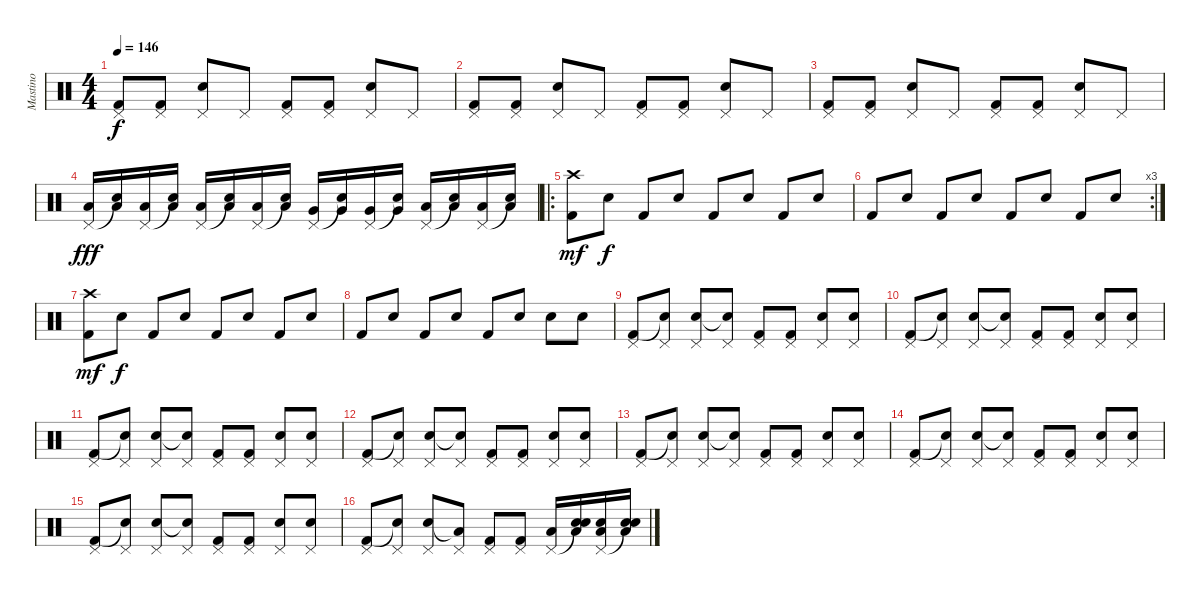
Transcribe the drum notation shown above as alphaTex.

\track ("Mastino" "Mastino") {instrument percussion}
\staff {score}
\articulation defaults
\ts (4 4)
\tempo 146
\clef neutral
\ks c
("Pedal Hi-Hat (hit)" "Kick (hit) 2").8{dy f} ("Pedal Hi-Hat (hit)" "Kick (hit) 2").8 ("Pedal Hi-Hat (hit)" "Electric Snare (hit)").8 "Pedal Hi-Hat (hit)".8 ("Pedal Hi-Hat (hit)" "Kick (hit) 2").8 ("Pedal Hi-Hat (hit)" "Kick (hit) 2").8 ("Pedal Hi-Hat (hit)" "Electric Snare (hit)").8 "Pedal Hi-Hat (hit)".8 |
("Pedal Hi-Hat (hit)" "Kick (hit) 2").8 ("Pedal Hi-Hat (hit)" "Kick (hit) 2").8 ("Pedal Hi-Hat (hit)" "Electric Snare (hit)").8 "Pedal Hi-Hat (hit)".8 ("Pedal Hi-Hat (hit)" "Kick (hit) 2").8 ("Pedal Hi-Hat (hit)" "Kick (hit) 2").8 ("Pedal Hi-Hat (hit)" "Electric Snare (hit)").8 "Pedal Hi-Hat (hit)".8 |
("Pedal Hi-Hat (hit)" "Kick (hit) 2").8 ("Pedal Hi-Hat (hit)" "Kick (hit) 2").8 ("Pedal Hi-Hat (hit)" "Electric Snare (hit)").8 "Pedal Hi-Hat (hit)".8 ("Pedal Hi-Hat (hit)" "Kick (hit) 2").8 ("Pedal Hi-Hat (hit)" "Kick (hit) 2").8 ("Pedal Hi-Hat (hit)" "Electric Snare (hit)").8 "Pedal Hi-Hat (hit)".8 |
("Pedal Hi-Hat (hit)" "Low Floor Tom (hit)").16{dy fff} ("Snare (hit)"{t} "Low Floor Tom (hit)").16 ("Pedal Hi-Hat (hit)" "Low Floor Tom (hit)").16 ("Snare (hit)"{t} "Low Floor Tom (hit)").16 ("Pedal Hi-Hat (hit)" "Low Tom (hit)").16 ("Snare (hit)"{t} "Low Tom (hit)").16 ("Pedal Hi-Hat (hit)" "Low Tom (hit)").16 ("Snare (hit)"{t} "Low Tom (hit)").16 ("Pedal Hi-Hat (hit)" "Very Low Tom (hit)").16 ("Snare (hit)"{t} "Very Low Tom (hit)").16 ("Pedal Hi-Hat (hit)" "Very Low Tom (hit)").16 ("Snare (hit)"{t} "Very Low Tom (hit)").16 ("Pedal Hi-Hat (hit)" "Low Tom (hit)").16 ("Snare (hit)"{t} "Low Tom (hit)").16 ("Pedal Hi-Hat (hit)" "Low Tom (hit)").16 ("Snare (hit)"{t} "Low Tom (hit)").16 |
\ro
("Crash high (hit)" "Kick (hit) 2").8{dy mf} "Electric Snare (hit)".8{dy f} "Kick (hit) 2".8 "Electric Snare (hit)".8 "Kick (hit) 2".8 "Electric Snare (hit)".8 "Kick (hit) 2".8 "Electric Snare (hit)".8 |
\rc 3 "Kick (hit) 2".8 "Electric Snare (hit)".8 "Kick (hit) 2".8 "Electric Snare (hit)".8 "Kick (hit) 2".8 "Electric Snare (hit)".8 "Kick (hit) 2".8 "Electric Snare (hit)".8
|
("Crash high (hit)" "Kick (hit) 2").8{dy mf} "Electric Snare (hit)".8{dy f} "Kick (hit) 2".8 "Electric Snare (hit)".8 "Kick (hit) 2".8 "Electric Snare (hit)".8 "Kick (hit) 2".8 "Electric Snare (hit)".8 |
"Kick (hit) 2".8 "Electric Snare (hit)".8 "Kick (hit) 2".8 "Electric Snare (hit)".8 "Kick (hit) 2".8 "Electric Snare (hit)".8 "Electric Snare (hit)".8 "Electric Snare (hit)".8 |
("Pedal Hi-Hat (hit)" "Kick (hit) 2").8 ("Pedal Hi-Hat (hit)" "Snare (hit)"{t}).8 ("Pedal Hi-Hat (hit)" "Electric Snare (hit)").8 ("Pedal Hi-Hat (hit)" "Snare (hit)"{t}).8 ("Pedal Hi-Hat (hit)" "Kick (hit) 2").8 ("Pedal Hi-Hat (hit)" "Kick (hit) 2").8 ("Pedal Hi-Hat (hit)" "Electric Snare (hit)").8 ("Pedal Hi-Hat (hit)" "Electric Snare (hit)").8 |
("Pedal Hi-Hat (hit)" "Kick (hit) 2").8 ("Pedal Hi-Hat (hit)" "Snare (hit)"{t}).8 ("Pedal Hi-Hat (hit)" "Electric Snare (hit)").8 ("Pedal Hi-Hat (hit)" "Snare (hit)"{t}).8 ("Pedal Hi-Hat (hit)" "Kick (hit) 2").8 ("Pedal Hi-Hat (hit)" "Kick (hit) 2").8 ("Pedal Hi-Hat (hit)" "Electric Snare (hit)").8 ("Pedal Hi-Hat (hit)" "Electric Snare (hit)").8 |
("Pedal Hi-Hat (hit)" "Kick (hit) 2").8 ("Pedal Hi-Hat (hit)" "Snare (hit)"{t}).8 ("Pedal Hi-Hat (hit)" "Electric Snare (hit)").8 ("Pedal Hi-Hat (hit)" "Snare (hit)"{t}).8 ("Pedal Hi-Hat (hit)" "Kick (hit) 2").8 ("Pedal Hi-Hat (hit)" "Kick (hit) 2").8 ("Pedal Hi-Hat (hit)" "Electric Snare (hit)").8 ("Pedal Hi-Hat (hit)" "Electric Snare (hit)").8 |
("Pedal Hi-Hat (hit)" "Kick (hit) 2").8 ("Pedal Hi-Hat (hit)" "Snare (hit)"{t}).8 ("Pedal Hi-Hat (hit)" "Electric Snare (hit)").8 ("Pedal Hi-Hat (hit)" "Snare (hit)"{t}).8 ("Pedal Hi-Hat (hit)" "Kick (hit) 2").8 ("Pedal Hi-Hat (hit)" "Kick (hit) 2").8 ("Pedal Hi-Hat (hit)" "Electric Snare (hit)").8 ("Pedal Hi-Hat (hit)" "Electric Snare (hit)").8 |
("Pedal Hi-Hat (hit)" "Kick (hit) 2").8 ("Pedal Hi-Hat (hit)" "Snare (hit)"{t}).8 ("Pedal Hi-Hat (hit)" "Electric Snare (hit)").8 ("Pedal Hi-Hat (hit)" "Snare (hit)"{t}).8 ("Pedal Hi-Hat (hit)" "Kick (hit) 2").8 ("Pedal Hi-Hat (hit)" "Kick (hit) 2").8 ("Pedal Hi-Hat (hit)" "Electric Snare (hit)").8 ("Pedal Hi-Hat (hit)" "Electric Snare (hit)").8 |
("Pedal Hi-Hat (hit)" "Kick (hit) 2").8 ("Pedal Hi-Hat (hit)" "Snare (hit)"{t}).8 ("Pedal Hi-Hat (hit)" "Electric Snare (hit)").8 ("Pedal Hi-Hat (hit)" "Snare (hit)"{t}).8 ("Pedal Hi-Hat (hit)" "Kick (hit) 2").8 ("Pedal Hi-Hat (hit)" "Kick (hit) 2").8 ("Pedal Hi-Hat (hit)" "Electric Snare (hit)").8 ("Pedal Hi-Hat (hit)" "Electric Snare (hit)").8 |
("Pedal Hi-Hat (hit)" "Kick (hit) 2").8 ("Pedal Hi-Hat (hit)" "Snare (hit)"{t}).8 ("Pedal Hi-Hat (hit)" "Electric Snare (hit)").8 ("Pedal Hi-Hat (hit)" "Snare (hit)"{t}).8 ("Pedal Hi-Hat (hit)" "Kick (hit) 2").8 ("Pedal Hi-Hat (hit)" "Kick (hit) 2").8 ("Pedal Hi-Hat (hit)" "Electric Snare (hit)").8 ("Pedal Hi-Hat (hit)" "Electric Snare (hit)").8 |
("Pedal Hi-Hat (hit)" "Kick (hit) 2").8 ("Pedal Hi-Hat (hit)" "Snare (hit)"{t}).8 ("Pedal Hi-Hat (hit)" "Electric Snare (hit)").8 ("Pedal Hi-Hat (hit)" "Low Tom (hit)"{t}).8 ("Pedal Hi-Hat (hit)" "Kick (hit) 2").8 ("Pedal Hi-Hat (hit)" "Kick (hit) 2").8 ("Pedal Hi-Hat (hit)" "Low Floor Tom (hit)").16 ("Snare (hit)"{t} "Electric Snare (hit)" "Low Floor Tom (hit)").16 ("Pedal Hi-Hat (hit)" "Electric Snare (hit)" "Low Floor Tom (hit)").16 ("Snare (hit)"{t} "Electric Snare (hit)" "Low Floor Tom (hit)").16
